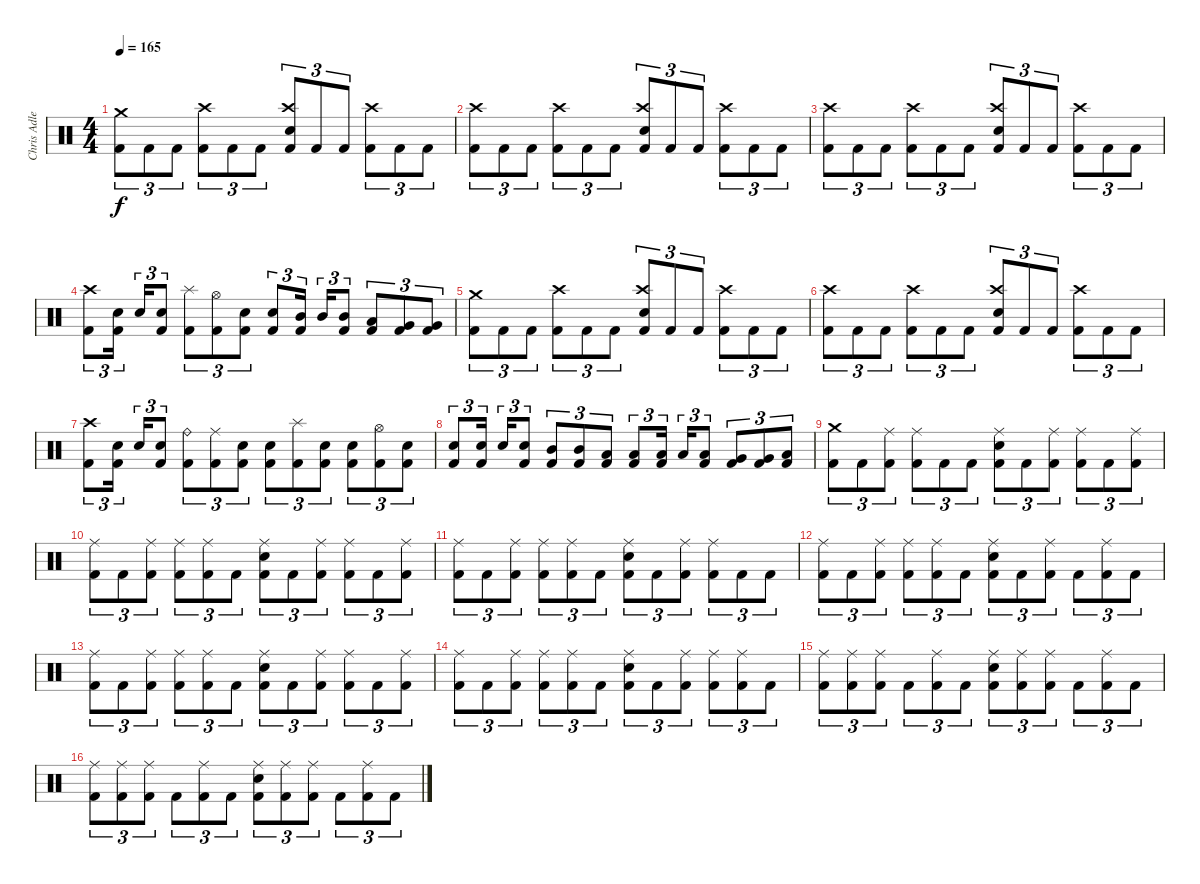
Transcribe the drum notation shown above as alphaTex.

\track ("Chris Adler" "Chris Adle") {instrument percussion}
\staff {score}
\articulation defaults
\ts (4 4)
\tempo 165
\clef neutral
\ks c
("Crash medium (hit)" "Kick (hit) 2").8{tu (3 2) dy f} "Kick (hit) 2".8{tu (3 2)} "Kick (hit) 2".8{tu (3 2)} ("Crash high (hit)" "Kick (hit) 2").8{tu (3 2)} "Kick (hit) 2".8{tu (3 2)} "Kick (hit) 2".8{tu (3 2)} ("Crash high (hit)" "Electric Snare (hit)" "Kick (hit) 2").8{tu (3 2)} "Kick (hit) 2".8{tu (3 2)} "Kick (hit) 2".8{tu (3 2)} ("Crash high (hit)" "Kick (hit) 2").8{tu (3 2)} "Kick (hit) 2".8{tu (3 2)} "Kick (hit) 2".8{tu (3 2)} |
("Crash high (hit)" "Kick (hit) 2").8{tu (3 2)} "Kick (hit) 2".8{tu (3 2)} "Kick (hit) 2".8{tu (3 2)} ("Crash high (hit)" "Kick (hit) 2").8{tu (3 2)} "Kick (hit) 2".8{tu (3 2)} "Kick (hit) 2".8{tu (3 2)} ("Crash high (hit)" "Electric Snare (hit)" "Kick (hit) 2").8{tu (3 2)} "Kick (hit) 2".8{tu (3 2)} "Kick (hit) 2".8{tu (3 2)} ("Crash high (hit)" "Kick (hit) 2").8{tu (3 2)} "Kick (hit) 2".8{tu (3 2)} "Kick (hit) 2".8{tu (3 2)} |
("Crash high (hit)" "Kick (hit) 2").8{tu (3 2)} "Kick (hit) 2".8{tu (3 2)} "Kick (hit) 2".8{tu (3 2)} ("Crash high (hit)" "Kick (hit) 2").8{tu (3 2)} "Kick (hit) 2".8{tu (3 2)} "Kick (hit) 2".8{tu (3 2)} ("Crash high (hit)" "Electric Snare (hit)" "Kick (hit) 2").8{tu (3 2)} "Kick (hit) 2".8{tu (3 2)} "Kick (hit) 2".8{tu (3 2)} ("Crash high (hit)" "Kick (hit) 2").8{tu (3 2)} "Kick (hit) 2".8{tu (3 2)} "Kick (hit) 2".8{tu (3 2)} |
("Crash high (hit)" "Kick (hit) 2").8{tu (3 2)} ("Electric Snare (hit)" "Kick (hit) 2").16{tu (3 2)} "Electric Snare (hit)".16{tu (3 2)} ("Electric Snare (hit)" "Kick (hit) 2").8{tu (3 2)} ("Splash (hit)" "Kick (hit) 2").8{tu (3 2)} ("Hi-Hat (open)" "Kick (hit) 2").8{tu (3 2)} ("Electric Snare (hit)" "Kick (hit) 2").8{tu (3 2)} ("Electric Snare (hit)" "Kick (hit) 2").8{tu (3 2)} ("Mid Tom (hit)" "Kick (hit) 2").16{tu (3 2)} "Mid Tom (hit)".16{tu (3 2)} ("Mid Tom (hit)" "Kick (hit) 2").8{tu (3 2)} ("Low Tom (hit)" "Kick (hit) 2").8{tu (3 2)} ("Very Low Tom (hit)" "Kick (hit) 2").8{tu (3 2)} ("Very Low Tom (hit)" "Kick (hit) 2").8{tu (3 2)} |
("Crash medium (hit)" "Kick (hit) 2").8{tu (3 2)} "Kick (hit) 2".8{tu (3 2)} "Kick (hit) 2".8{tu (3 2)} ("Crash high (hit)" "Kick (hit) 2").8{tu (3 2)} "Kick (hit) 2".8{tu (3 2)} "Kick (hit) 2".8{tu (3 2)} ("Crash high (hit)" "Electric Snare (hit)" "Kick (hit) 2").8{tu (3 2)} "Kick (hit) 2".8{tu (3 2)} "Kick (hit) 2".8{tu (3 2)} ("Crash high (hit)" "Kick (hit) 2").8{tu (3 2)} "Kick (hit) 2".8{tu (3 2)} "Kick (hit) 2".8{tu (3 2)} |
("Crash high (hit)" "Kick (hit) 2").8{tu (3 2)} "Kick (hit) 2".8{tu (3 2)} "Kick (hit) 2".8{tu (3 2)} ("Crash high (hit)" "Kick (hit) 2").8{tu (3 2)} "Kick (hit) 2".8{tu (3 2)} "Kick (hit) 2".8{tu (3 2)} ("Crash high (hit)" "Electric Snare (hit)" "Kick (hit) 2").8{tu (3 2)} "Kick (hit) 2".8{tu (3 2)} "Kick (hit) 2".8{tu (3 2)} ("Crash high (hit)" "Kick (hit) 2").8{tu (3 2)} "Kick (hit) 2".8{tu (3 2)} "Kick (hit) 2".8{tu (3 2)} |
("Crash high (hit)" "Kick (hit) 2").8{tu (3 2)} ("Electric Snare (hit)" "Kick (hit) 2").16{tu (3 2)} "Electric Snare (hit)".16{tu (3 2)} ("Electric Snare (hit)" "Kick (hit) 2").8{tu (3 2)} ("Ride (bell)" "Kick (hit) 2").8{tu (3 2)} ("Ride (middle)" "Kick (hit) 2").8{tu (3 2)} ("Electric Snare (hit)" "Kick (hit) 2").8{tu (3 2)} ("Electric Snare (hit)" "Kick (hit) 2").8{tu (3 2)} ("Splash (hit)" "Kick (hit) 2").8{tu (3 2)} ("Electric Snare (hit)" "Kick (hit) 2").8{tu (3 2)} ("Electric Snare (hit)" "Kick (hit) 2").8{tu (3 2)} ("Hi-Hat (open)" "Kick (hit) 2").8{tu (3 2)} ("Electric Snare (hit)" "Kick (hit) 2").8{tu (3 2)} |
("Electric Snare (hit)" "Kick (hit) 2").8{tu (3 2)} ("Electric Snare (hit)" "Kick (hit) 2").16{tu (3 2)} "Electric Snare (hit)".16{tu (3 2)} ("Electric Snare (hit)" "Kick (hit) 2").8{tu (3 2)} ("Mid Tom (hit)" "Kick (hit) 2").8{tu (3 2)} ("Mid Tom (hit)" "Kick (hit) 2").8{tu (3 2)} ("Low Tom (hit)" "Kick (hit) 2").8{tu (3 2)} ("Low Tom (hit)" "Kick (hit) 2").8{tu (3 2)} ("Low Tom (hit)" "Kick (hit) 2").16{tu (3 2)} "Low Tom (hit)".16{tu (3 2)} ("Low Tom (hit)" "Kick (hit) 2").8{tu (3 2)} ("Very Low Tom (hit)" "Kick (hit) 2").8{tu (3 2)} ("Very Low Tom (hit)" "Kick (hit) 2").8{tu (3 2)} ("Low Floor Tom (hit)" "Kick (hit) 2").8{tu (3 2)} |
("Crash medium (hit)" "Kick (hit) 2").8{tu (3 2)} "Kick (hit) 2".8{tu (3 2)} ("Ride (middle)" "Kick (hit) 2").8{tu (3 2)} ("Ride (middle)" "Kick (hit) 2").8{tu (3 2)} "Kick (hit) 2".8{tu (3 2)} "Kick (hit) 2".8{tu (3 2)} ("Ride (middle)" "Electric Snare (hit)" "Kick (hit) 2").8{tu (3 2)} "Kick (hit) 2".8{tu (3 2)} ("Ride (middle)" "Kick (hit) 2").8{tu (3 2)} ("Ride (middle)" "Kick (hit) 2").8{tu (3 2)} "Kick (hit) 2".8{tu (3 2)} ("Ride (middle)" "Kick (hit) 2").8{tu (3 2)} |
("Ride (middle)" "Kick (hit) 2").8{tu (3 2)} "Kick (hit) 2".8{tu (3 2)} ("Ride (middle)" "Kick (hit) 2").8{tu (3 2)} ("Ride (middle)" "Kick (hit) 2").8{tu (3 2)} ("Ride (middle)" "Kick (hit) 2").8{tu (3 2)} "Kick (hit) 2".8{tu (3 2)} ("Ride (middle)" "Electric Snare (hit)" "Kick (hit) 2").8{tu (3 2)} "Kick (hit) 2".8{tu (3 2)} ("Ride (middle)" "Kick (hit) 2").8{tu (3 2)} ("Ride (middle)" "Kick (hit) 2").8{tu (3 2)} "Kick (hit) 2".8{tu (3 2)} ("Ride (middle)" "Kick (hit) 2").8{tu (3 2)} |
("Ride (middle)" "Kick (hit) 2").8{tu (3 2)} "Kick (hit) 2".8{tu (3 2)} ("Ride (middle)" "Kick (hit) 2").8{tu (3 2)} ("Ride (middle)" "Kick (hit) 2").8{tu (3 2)} ("Ride (middle)" "Kick (hit) 2").8{tu (3 2)} "Kick (hit) 2".8{tu (3 2)} ("Ride (middle)" "Electric Snare (hit)" "Kick (hit) 2").8{tu (3 2)} "Kick (hit) 2".8{tu (3 2)} ("Ride (middle)" "Kick (hit) 2").8{tu (3 2)} ("Ride (middle)" "Kick (hit) 2").8{tu (3 2)} "Kick (hit) 2".8{tu (3 2)} "Kick (hit) 2".8{tu (3 2)} |
("Ride (middle)" "Kick (hit) 2").8{tu (3 2)} "Kick (hit) 2".8{tu (3 2)} ("Ride (middle)" "Kick (hit) 2").8{tu (3 2)} ("Ride (middle)" "Kick (hit) 2").8{tu (3 2)} ("Ride (middle)" "Kick (hit) 2").8{tu (3 2)} "Kick (hit) 2".8{tu (3 2)} ("Ride (middle)" "Electric Snare (hit)" "Kick (hit) 2").8{tu (3 2)} "Kick (hit) 2".8{tu (3 2)} ("Ride (middle)" "Kick (hit) 2").8{tu (3 2)} "Kick (hit) 2".8{tu (3 2)} ("Ride (middle)" "Kick (hit) 2").8{tu (3 2)} "Kick (hit) 2".8{tu (3 2)} |
("Ride (middle)" "Kick (hit) 2").8{tu (3 2)} "Kick (hit) 2".8{tu (3 2)} ("Ride (middle)" "Kick (hit) 2").8{tu (3 2)} ("Ride (middle)" "Kick (hit) 2").8{tu (3 2)} ("Ride (middle)" "Kick (hit) 2").8{tu (3 2)} "Kick (hit) 2".8{tu (3 2)} ("Ride (middle)" "Electric Snare (hit)" "Kick (hit) 2").8{tu (3 2)} "Kick (hit) 2".8{tu (3 2)} ("Ride (middle)" "Kick (hit) 2").8{tu (3 2)} ("Ride (middle)" "Kick (hit) 2").8{tu (3 2)} "Kick (hit) 2".8{tu (3 2)} ("Ride (middle)" "Kick (hit) 2").8{tu (3 2)} |
("Ride (middle)" "Kick (hit) 2").8{tu (3 2)} "Kick (hit) 2".8{tu (3 2)} ("Ride (middle)" "Kick (hit) 2").8{tu (3 2)} ("Ride (middle)" "Kick (hit) 2").8{tu (3 2)} ("Ride (middle)" "Kick (hit) 2").8{tu (3 2)} "Kick (hit) 2".8{tu (3 2)} ("Ride (middle)" "Electric Snare (hit)" "Kick (hit) 2").8{tu (3 2)} "Kick (hit) 2".8{tu (3 2)} ("Ride (middle)" "Kick (hit) 2").8{tu (3 2)} ("Ride (middle)" "Kick (hit) 2").8{tu (3 2)} ("Ride (middle)" "Kick (hit) 2").8{tu (3 2)} "Kick (hit) 2".8{tu (3 2)} |
("Ride (middle)" "Kick (hit) 2").8{tu (3 2)} ("Ride (middle)" "Kick (hit) 2").8{tu (3 2)} ("Ride (middle)" "Kick (hit) 2").8{tu (3 2)} "Kick (hit) 2".8{tu (3 2)} ("Ride (middle)" "Kick (hit) 2").8{tu (3 2)} "Kick (hit) 2".8{tu (3 2)} ("Ride (middle)" "Electric Snare (hit)" "Kick (hit) 2").8{tu (3 2)} ("Ride (middle)" "Kick (hit) 2").8{tu (3 2)} ("Ride (middle)" "Kick (hit) 2").8{tu (3 2)} "Kick (hit) 2".8{tu (3 2)} ("Ride (middle)" "Kick (hit) 2").8{tu (3 2)} "Kick (hit) 2".8{tu (3 2)} |
("Ride (middle)" "Kick (hit) 2").8{tu (3 2)} ("Ride (middle)" "Kick (hit) 2").8{tu (3 2)} ("Ride (middle)" "Kick (hit) 2").8{tu (3 2)} "Kick (hit) 2".8{tu (3 2)} ("Ride (middle)" "Kick (hit) 2").8{tu (3 2)} "Kick (hit) 2".8{tu (3 2)} ("Ride (middle)" "Electric Snare (hit)" "Kick (hit) 2").8{tu (3 2)} ("Ride (middle)" "Kick (hit) 2").8{tu (3 2)} ("Ride (middle)" "Kick (hit) 2").8{tu (3 2)} "Kick (hit) 2".8{tu (3 2)} ("Ride (middle)" "Kick (hit) 2").8{tu (3 2)} "Kick (hit) 2".8{tu (3 2)}
